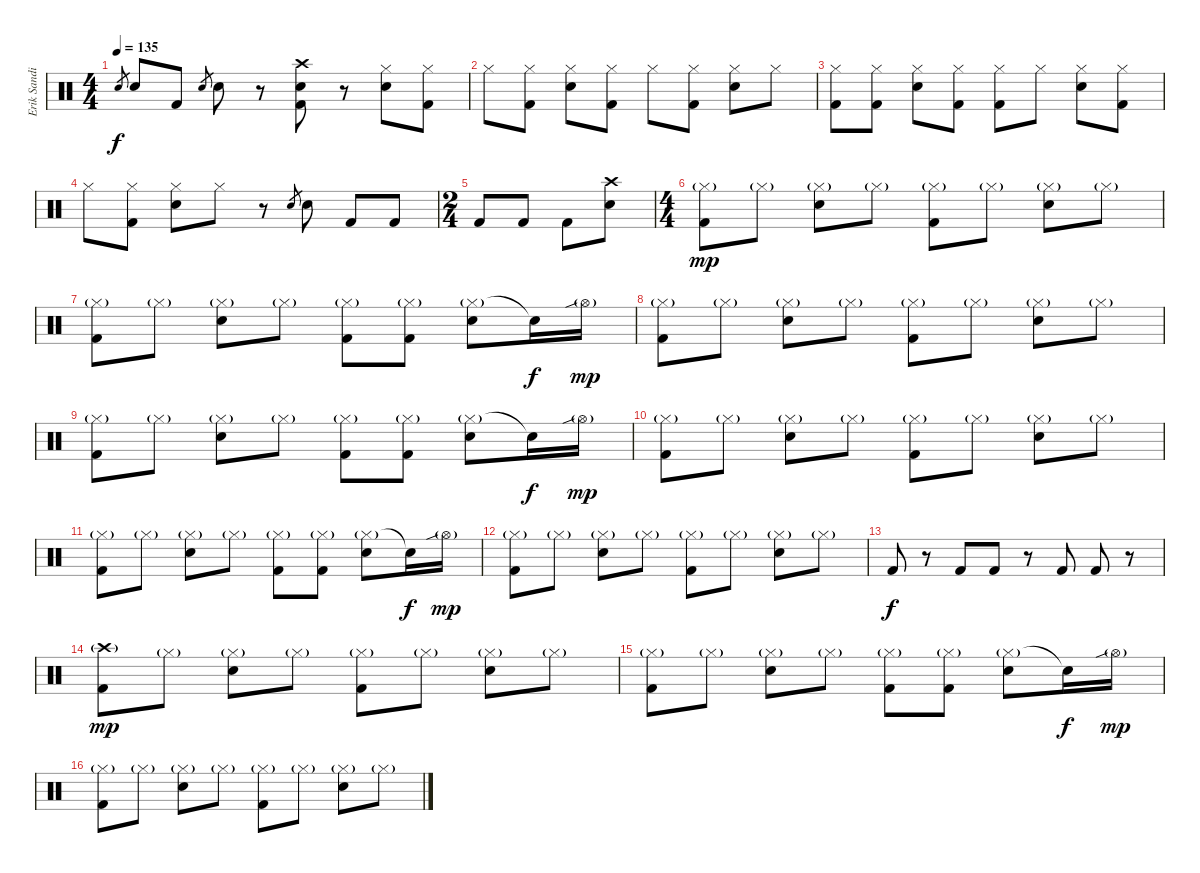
\track ("Erik Sandin" "Erik Sandi") {instrument percussion}
\staff {score}
\articulation defaults
\ts (4 4)
\tempo 135
\clef neutral
\ks c "Snare (hit) 2".8{gr dy f} "Snare (hit) 2".8 "Kick (hit) 2".8 "Snare (hit) 2".8{gr} "Snare (hit) 2".8
r.8 ("Crash high (hit)" "Snare (hit) 2" "Kick (hit) 2").8 r.8 ("Hi-Hat (closed)" "Snare (hit) 2").8 ("Hi-Hat (closed)" "Kick (hit) 2").8 |
"Hi-Hat (closed)".8 ("Hi-Hat (closed)" "Kick (hit) 2").8 ("Hi-Hat (closed)" "Snare (hit) 2").8 ("Hi-Hat (closed)" "Kick (hit) 2").8 "Hi-Hat (closed)".8 ("Hi-Hat (closed)" "Kick (hit) 2").8 ("Hi-Hat (closed)" "Snare (hit) 2").8 "Hi-Hat (closed)".8 |
("Hi-Hat (closed)" "Kick (hit) 2").8 ("Hi-Hat (closed)" "Kick (hit) 2").8 ("Hi-Hat (closed)" "Snare (hit) 2").8 ("Hi-Hat (closed)" "Kick (hit) 2").8 ("Hi-Hat (closed)" "Kick (hit) 2").8 "Hi-Hat (closed)".8 ("Hi-Hat (closed)" "Snare (hit) 2").8 ("Hi-Hat (closed)" "Kick (hit) 2").8 |
"Hi-Hat (closed)".8 ("Hi-Hat (closed)" "Kick (hit) 2").8 ("Hi-Hat (closed)" "Snare (hit) 2").8 "Hi-Hat (closed)".8 r.8 "Snare (hit) 2".8{gr} "Snare (hit) 2".8 "Kick (hit) 2".8 "Kick (hit) 2".8 |
\ts (2 4)
"Kick (hit) 2".8 "Kick (hit) 2".8 "Kick (hit) 2".8 ("Crash high (hit)" "Snare (hit) 2").8 |
\ts (4 4)
("Hi-Hat (closed)"{g} "Kick (hit) 2").8{dy mp} "Hi-Hat (closed)"{g}.8 ("Hi-Hat (closed)"{g} "Snare (hit) 2").8 "Hi-Hat (closed)"{g}.8 ("Hi-Hat (closed)"{g} "Kick (hit) 2").8 "Hi-Hat (closed)"{g}.8 ("Hi-Hat (closed)"{g} "Snare (hit) 2").8 "Hi-Hat (closed)"{g}.8 |
("Hi-Hat (closed)"{g} "Kick (hit) 2").8 "Hi-Hat (closed)"{g}.8 ("Hi-Hat (closed)"{g} "Snare (hit) 2").8 "Hi-Hat (closed)"{g}.8 ("Hi-Hat (closed)"{g} "Kick (hit) 2").8 ("Hi-Hat (closed)"{g} "Kick (hit) 2").8 ("Hi-Hat (closed)"{g} "Snare (hit) 2").8 "Snare (hit)"{t}.16{dy f} "Hi-Hat (open)"{sib g}.16{dy mp} |
("Hi-Hat (closed)"{g} "Kick (hit) 2").8 "Hi-Hat (closed)"{g}.8 ("Hi-Hat (closed)"{g} "Snare (hit) 2").8 "Hi-Hat (closed)"{g}.8 ("Hi-Hat (closed)"{g} "Kick (hit) 2").8 "Hi-Hat (closed)"{g}.8 ("Hi-Hat (closed)"{g} "Snare (hit) 2").8 "Hi-Hat (closed)"{g}.8 |
("Hi-Hat (closed)"{g} "Kick (hit) 2").8 "Hi-Hat (closed)"{g}.8 ("Hi-Hat (closed)"{g} "Snare (hit) 2").8 "Hi-Hat (closed)"{g}.8 ("Hi-Hat (closed)"{g} "Kick (hit) 2").8 ("Hi-Hat (closed)"{g} "Kick (hit) 2").8 ("Hi-Hat (closed)"{g} "Snare (hit) 2").8 "Snare (hit)"{t}.16{dy f} "Hi-Hat (open)"{sib g}.16{dy mp} |
("Hi-Hat (closed)"{g} "Kick (hit) 2").8 "Hi-Hat (closed)"{g}.8 ("Hi-Hat (closed)"{g} "Snare (hit) 2").8 "Hi-Hat (closed)"{g}.8 ("Hi-Hat (closed)"{g} "Kick (hit) 2").8 "Hi-Hat (closed)"{g}.8 ("Hi-Hat (closed)"{g} "Snare (hit) 2").8 "Hi-Hat (closed)"{g}.8 |
("Hi-Hat (closed)"{g} "Kick (hit) 2").8 "Hi-Hat (closed)"{g}.8 ("Hi-Hat (closed)"{g} "Snare (hit) 2").8 "Hi-Hat (closed)"{g}.8 ("Hi-Hat (closed)"{g} "Kick (hit) 2").8 ("Hi-Hat (closed)"{g} "Kick (hit) 2").8 ("Hi-Hat (closed)"{g} "Snare (hit) 2").8 "Snare (hit)"{t}.16{dy f} "Hi-Hat (open)"{sib g}.16{dy mp} |
("Hi-Hat (closed)"{g} "Kick (hit) 2").8 "Hi-Hat (closed)"{g}.8 ("Hi-Hat (closed)"{g} "Snare (hit) 2").8 "Hi-Hat (closed)"{g}.8 ("Hi-Hat (closed)"{g} "Kick (hit) 2").8 "Hi-Hat (closed)"{g}.8 ("Hi-Hat (closed)"{g} "Snare (hit) 2").8 "Hi-Hat (closed)"{g}.8 |
"Kick (hit) 2".8{dy f} r.8 "Kick (hit) 2".8 "Kick (hit) 2".8 r.8 "Kick (hit) 2".8 "Kick (hit) 2".8 r.8 |
("Crash high (hit)"{g} "Kick (hit) 2").8{dy mp} "Hi-Hat (closed)"{g}.8 ("Hi-Hat (closed)"{g} "Snare (hit) 2").8 "Hi-Hat (closed)"{g}.8 ("Hi-Hat (closed)"{g} "Kick (hit) 2").8 "Hi-Hat (closed)"{g}.8 ("Hi-Hat (closed)"{g} "Snare (hit) 2").8 "Hi-Hat (closed)"{g}.8 |
("Hi-Hat (closed)"{g} "Kick (hit) 2").8 "Hi-Hat (closed)"{g}.8 ("Hi-Hat (closed)"{g} "Snare (hit) 2").8 "Hi-Hat (closed)"{g}.8 ("Hi-Hat (closed)"{g} "Kick (hit) 2").8 ("Hi-Hat (closed)"{g} "Kick (hit) 2").8 ("Hi-Hat (closed)"{g} "Snare (hit) 2").8 "Snare (hit)"{t}.16{dy f} "Hi-Hat (open)"{sib g}.16{dy mp} |
("Hi-Hat (closed)"{g} "Kick (hit) 2").8 "Hi-Hat (closed)"{g}.8 ("Hi-Hat (closed)"{g} "Snare (hit) 2").8 "Hi-Hat (closed)"{g}.8 ("Hi-Hat (closed)"{g} "Kick (hit) 2").8 "Hi-Hat (closed)"{g}.8 ("Hi-Hat (closed)"{g} "Snare (hit) 2").8 "Hi-Hat (closed)"{g}.8
